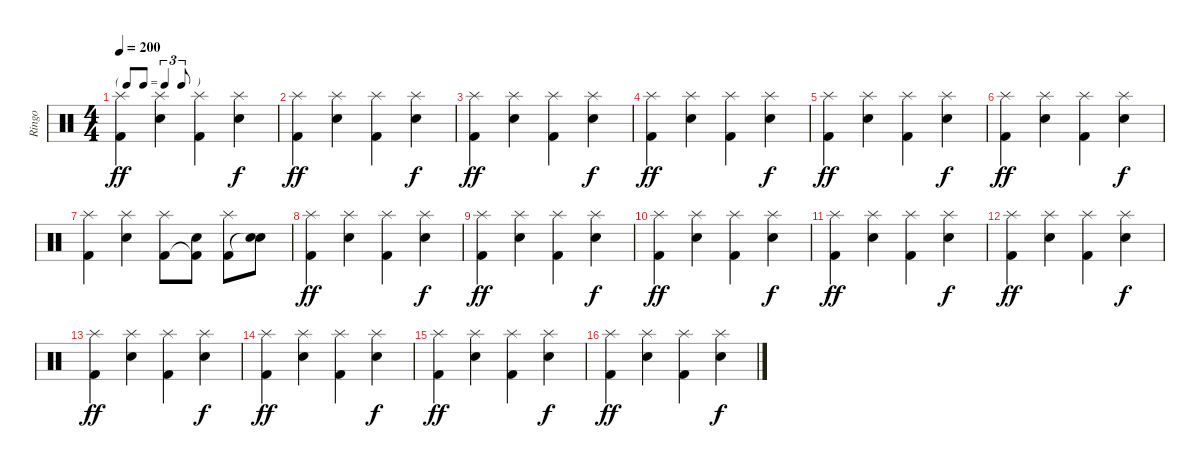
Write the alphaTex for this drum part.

\track ("Ringo" "Ringo") {instrument percussion}
\staff {score}
\articulation defaults
\ts (4 4)
\tf triplet8th
\tempo 200
\clef neutral
\ks c
("Splash (hit)" "Kick (hit) 2").4{dy ff} ("Splash (hit)" "Electric Snare (hit)").4 ("Splash (hit)" "Kick (hit) 2").4 ("Splash (hit)" "Electric Snare (hit)").4{dy f} |
("Splash (hit)" "Kick (hit) 2").4{dy ff} ("Splash (hit)" "Electric Snare (hit)").4 ("Splash (hit)" "Kick (hit) 2").4 ("Splash (hit)" "Electric Snare (hit)").4{dy f} |
("Splash (hit)" "Kick (hit) 2").4{dy ff} ("Splash (hit)" "Electric Snare (hit)").4 ("Splash (hit)" "Kick (hit) 2").4 ("Splash (hit)" "Electric Snare (hit)").4{dy f} |
("Splash (hit)" "Kick (hit) 2").4{dy ff} ("Splash (hit)" "Electric Snare (hit)").4 ("Splash (hit)" "Kick (hit) 2").4 ("Splash (hit)" "Electric Snare (hit)").4{dy f} |
("Splash (hit)" "Kick (hit) 2").4{dy ff} ("Splash (hit)" "Electric Snare (hit)").4 ("Splash (hit)" "Kick (hit) 2").4 ("Splash (hit)" "Electric Snare (hit)").4{dy f} |
("Splash (hit)" "Kick (hit) 2").4{dy ff} ("Splash (hit)" "Electric Snare (hit)").4 ("Splash (hit)" "Kick (hit) 2").4 ("Splash (hit)" "Electric Snare (hit)").4{dy f} |
("Splash (hit)" "Kick (hit) 2").4 ("Splash (hit)" "Electric Snare (hit)").4 ("Splash (hit)" "Kick (hit) 2").8 ("Electric Snare (hit)" "Kick (hit) 2"{t}).8 ("Splash (hit)" "Kick (hit) 2").8 ("Electric Snare (hit)" "Snare (hit)"{t}).8 |
("Splash (hit)" "Kick (hit) 2").4{dy ff} ("Splash (hit)" "Electric Snare (hit)").4 ("Splash (hit)" "Kick (hit) 2").4 ("Splash (hit)" "Electric Snare (hit)").4{dy f} |
("Splash (hit)" "Kick (hit) 2").4{dy ff} ("Splash (hit)" "Electric Snare (hit)").4 ("Splash (hit)" "Kick (hit) 2").4 ("Splash (hit)" "Electric Snare (hit)").4{dy f} |
("Splash (hit)" "Kick (hit) 2").4{dy ff} ("Splash (hit)" "Electric Snare (hit)").4 ("Splash (hit)" "Kick (hit) 2").4 ("Splash (hit)" "Electric Snare (hit)").4{dy f} |
("Splash (hit)" "Kick (hit) 2").4{dy ff} ("Splash (hit)" "Electric Snare (hit)").4 ("Splash (hit)" "Kick (hit) 2").4 ("Splash (hit)" "Electric Snare (hit)").4{dy f} |
("Splash (hit)" "Kick (hit) 2").4{dy ff} ("Splash (hit)" "Electric Snare (hit)").4 ("Splash (hit)" "Kick (hit) 2").4 ("Splash (hit)" "Electric Snare (hit)").4{dy f} |
("Splash (hit)" "Kick (hit) 2").4{dy ff} ("Splash (hit)" "Electric Snare (hit)").4 ("Splash (hit)" "Kick (hit) 2").4 ("Splash (hit)" "Electric Snare (hit)").4{dy f} |
("Splash (hit)" "Kick (hit) 2").4{dy ff} ("Splash (hit)" "Electric Snare (hit)").4 ("Splash (hit)" "Kick (hit) 2").4 ("Splash (hit)" "Electric Snare (hit)").4{dy f} |
("Splash (hit)" "Kick (hit) 2").4{dy ff} ("Splash (hit)" "Electric Snare (hit)").4 ("Splash (hit)" "Kick (hit) 2").4 ("Splash (hit)" "Electric Snare (hit)").4{dy f} |
("Splash (hit)" "Kick (hit) 2").4{dy ff} ("Splash (hit)" "Electric Snare (hit)").4 ("Splash (hit)" "Kick (hit) 2").4 ("Splash (hit)" "Electric Snare (hit)").4{dy f}
